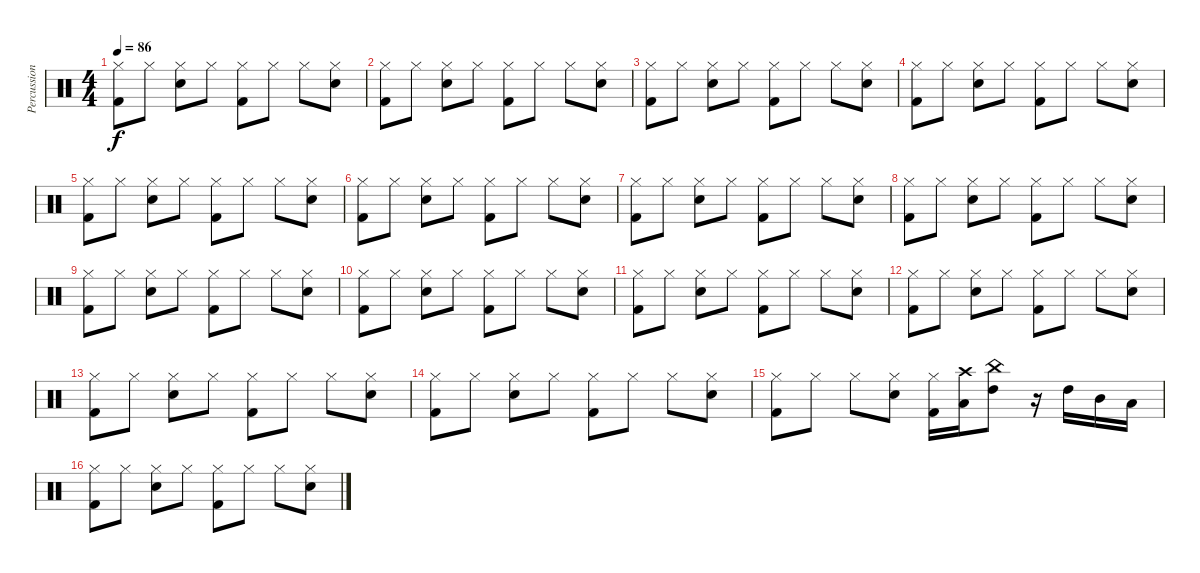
\track ("Percussions" "Percussion") {instrument percussion}
\staff {score}
\articulation defaults
\ts (4 4)
\tempo 86
\clef neutral
\ks c
("Hi-Hat (closed)" "Kick (hit) 2").8{dy f} "Hi-Hat (closed)".8 ("Hi-Hat (closed)" "Snare (hit) 2").8 "Hi-Hat (closed)".8 ("Hi-Hat (closed)" "Kick (hit) 2").8 "Hi-Hat (closed)".8 "Hi-Hat (closed)".8 ("Hi-Hat (closed)" "Snare (hit) 2").8 |
("Hi-Hat (closed)" "Kick (hit) 2").8 "Hi-Hat (closed)".8 ("Hi-Hat (closed)" "Snare (hit) 2").8 "Hi-Hat (closed)".8 ("Hi-Hat (closed)" "Kick (hit) 2").8 "Hi-Hat (closed)".8 "Hi-Hat (closed)".8 ("Hi-Hat (closed)" "Snare (hit) 2").8 |
("Hi-Hat (closed)" "Kick (hit) 2").8 "Hi-Hat (closed)".8 ("Hi-Hat (closed)" "Snare (hit) 2").8 "Hi-Hat (closed)".8 ("Hi-Hat (closed)" "Kick (hit) 2").8 "Hi-Hat (closed)".8 "Hi-Hat (closed)".8 ("Hi-Hat (closed)" "Snare (hit) 2").8 |
("Hi-Hat (closed)" "Kick (hit) 2").8 "Hi-Hat (closed)".8 ("Hi-Hat (closed)" "Snare (hit) 2").8 "Hi-Hat (closed)".8 ("Hi-Hat (closed)" "Kick (hit) 2").8 "Hi-Hat (closed)".8 "Hi-Hat (closed)".8 ("Hi-Hat (closed)" "Snare (hit) 2").8 |
("Hi-Hat (closed)" "Kick (hit) 2").8 "Hi-Hat (closed)".8 ("Hi-Hat (closed)" "Snare (hit) 2").8 "Hi-Hat (closed)".8 ("Hi-Hat (closed)" "Kick (hit) 2").8 "Hi-Hat (closed)".8 "Hi-Hat (closed)".8 ("Hi-Hat (closed)" "Snare (hit) 2").8 |
("Hi-Hat (closed)" "Kick (hit) 2").8 "Hi-Hat (closed)".8 ("Hi-Hat (closed)" "Snare (hit) 2").8 "Hi-Hat (closed)".8 ("Hi-Hat (closed)" "Kick (hit) 2").8 "Hi-Hat (closed)".8 "Hi-Hat (closed)".8 ("Hi-Hat (closed)" "Snare (hit) 2").8 |
("Hi-Hat (closed)" "Kick (hit) 2").8 "Hi-Hat (closed)".8 ("Hi-Hat (closed)" "Snare (hit) 2").8 "Hi-Hat (closed)".8 ("Hi-Hat (closed)" "Kick (hit) 2").8 "Hi-Hat (closed)".8 "Hi-Hat (closed)".8 ("Hi-Hat (closed)" "Snare (hit) 2").8 |
("Hi-Hat (closed)" "Kick (hit) 2").8 "Hi-Hat (closed)".8 ("Hi-Hat (closed)" "Snare (hit) 2").8 "Hi-Hat (closed)".8 ("Hi-Hat (closed)" "Kick (hit) 2").8 "Hi-Hat (closed)".8 "Hi-Hat (closed)".8 ("Hi-Hat (closed)" "Snare (hit) 2").8 |
("Hi-Hat (closed)" "Kick (hit) 2").8 "Hi-Hat (closed)".8 ("Hi-Hat (closed)" "Snare (hit) 2").8 "Hi-Hat (closed)".8 ("Hi-Hat (closed)" "Kick (hit) 2").8 "Hi-Hat (closed)".8 "Hi-Hat (closed)".8 ("Hi-Hat (closed)" "Snare (hit) 2").8 |
("Hi-Hat (closed)" "Kick (hit) 2").8 "Hi-Hat (closed)".8 ("Hi-Hat (closed)" "Snare (hit) 2").8 "Hi-Hat (closed)".8 ("Hi-Hat (closed)" "Kick (hit) 2").8 "Hi-Hat (closed)".8 "Hi-Hat (closed)".8 ("Hi-Hat (closed)" "Snare (hit) 2").8 |
("Hi-Hat (closed)" "Kick (hit) 2").8 "Hi-Hat (closed)".8 ("Hi-Hat (closed)" "Snare (hit) 2").8 "Hi-Hat (closed)".8 ("Hi-Hat (closed)" "Kick (hit) 2").8 "Hi-Hat (closed)".8 "Hi-Hat (closed)".8 ("Hi-Hat (closed)" "Snare (hit) 2").8 |
("Hi-Hat (closed)" "Kick (hit) 2").8 "Hi-Hat (closed)".8 ("Hi-Hat (closed)" "Snare (hit) 2").8 "Hi-Hat (closed)".8 ("Hi-Hat (closed)" "Kick (hit) 2").8 "Hi-Hat (closed)".8 "Hi-Hat (closed)".8 ("Hi-Hat (closed)" "Snare (hit) 2").8 |
("Hi-Hat (closed)" "Kick (hit) 2").8 "Hi-Hat (closed)".8 ("Hi-Hat (closed)" "Snare (hit) 2").8 "Hi-Hat (closed)".8 ("Hi-Hat (closed)" "Kick (hit) 2").8 "Hi-Hat (closed)".8 "Hi-Hat (closed)".8 ("Hi-Hat (closed)" "Snare (hit) 2").8 |
("Hi-Hat (closed)" "Kick (hit) 2").8 "Hi-Hat (closed)".8 ("Hi-Hat (closed)" "Snare (hit) 2").8 "Hi-Hat (closed)".8 ("Hi-Hat (closed)" "Kick (hit) 2").8 "Hi-Hat (closed)".8 "Hi-Hat (closed)".8 ("Hi-Hat (closed)" "Snare (hit) 2").8 |
("Hi-Hat (closed)" "Kick (hit) 2").8 "Hi-Hat (closed)".8 "Hi-Hat (closed)".8 ("Hi-Hat (closed)" "Snare (hit) 2").8 ("Hi-Hat (closed)" "Kick (hit) 2").16 ("Crash high (hit)" "Low Tom (hit)").16 ("China (hit)" "High Tom (hit)").8 r.16 "High Tom (hit)".16 "Mid Tom (hit)".16 "Low Tom (hit)".16 |
("Hi-Hat (closed)" "Kick (hit) 2").8 "Hi-Hat (closed)".8 ("Hi-Hat (closed)" "Snare (hit) 2").8 "Hi-Hat (closed)".8 ("Hi-Hat (closed)" "Kick (hit) 2").8 "Hi-Hat (closed)".8 "Hi-Hat (closed)".8 ("Hi-Hat (closed)" "Snare (hit) 2").8
